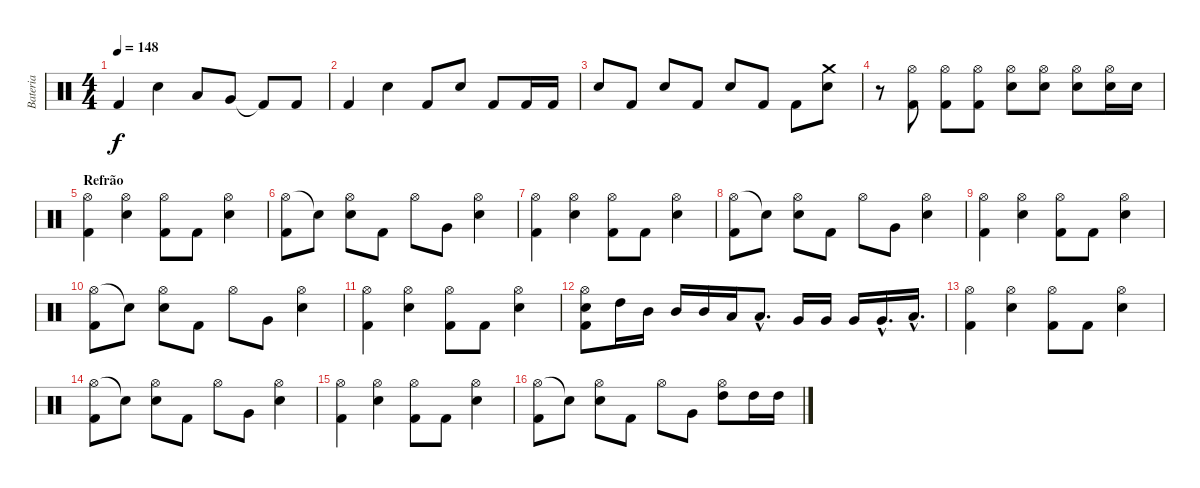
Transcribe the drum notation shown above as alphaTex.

\track ("Bateria" "Bateria") {instrument percussion}
\staff {score}
\articulation defaults
\ts (4 4)
\tempo 148
\clef neutral
\ks c "Kick (hit) 2".4{dy f} "Electric Snare (hit)".4 "Low Tom (hit)".8 "Very Low Tom (hit)".8 "Kick (hit) 2"{t}.8 "Kick (hit) 2".8
|
"Kick (hit) 2".4 "Electric Snare (hit)".4 "Kick (hit) 2".8 "Electric Snare (hit)".8 "Kick (hit) 2".8 "Kick (hit) 2".16 "Kick (hit) 2".16 |
"Electric Snare (hit)".8 "Kick (hit) 2".8 "Electric Snare (hit)".8 "Kick (hit) 2".8 "Electric Snare (hit)".8 "Kick (hit) 2".8 "Kick (hit) 2".8 ("Crash medium (hit)" "Electric Snare (hit)").8 |
r.8 ("Hi-Hat (open)" "Kick (hit) 2").8 ("Hi-Hat (open)" "Kick (hit) 2").8 ("Hi-Hat (open)" "Kick (hit) 2").8 ("Hi-Hat (open)" "Electric Snare (hit)").8 ("Hi-Hat (open)" "Electric Snare (hit)").8 ("Hi-Hat (open)" "Electric Snare (hit)").8 ("Hi-Hat (open)" "Electric Snare (hit)").16 "Electric Snare (hit)".16 |
\section ("" "Refrão")
("Hi-Hat (open)" "Kick (hit) 2").4 ("Hi-Hat (open)" "Electric Snare (hit)").4 ("Hi-Hat (open)" "Kick (hit) 2").8 "Kick (hit) 2".8 ("Hi-Hat (open)" "Electric Snare (hit)").4 |
("Hi-Hat (open)" "Kick (hit) 2").8 "Snare (hit)"{t}.8 ("Hi-Hat (open)" "Electric Snare (hit)").8 "Kick (hit) 2".8 "Hi-Hat (open)".8 "Very Low Tom (hit)".8 ("Hi-Hat (open)" "Electric Snare (hit)").4 |
("Hi-Hat (open)" "Kick (hit) 2").4 ("Hi-Hat (open)" "Electric Snare (hit)").4 ("Hi-Hat (open)" "Kick (hit) 2").8 "Kick (hit) 2".8 ("Hi-Hat (open)" "Electric Snare (hit)").4 |
("Hi-Hat (open)" "Kick (hit) 2").8 "Snare (hit)"{t}.8 ("Hi-Hat (open)" "Electric Snare (hit)").8 "Kick (hit) 2".8 "Hi-Hat (open)".8 "Very Low Tom (hit)".8 ("Hi-Hat (open)" "Electric Snare (hit)").4 |
("Hi-Hat (open)" "Kick (hit) 2").4 ("Hi-Hat (open)" "Electric Snare (hit)").4 ("Hi-Hat (open)" "Kick (hit) 2").8 "Kick (hit) 2".8 ("Hi-Hat (open)" "Electric Snare (hit)").4 |
("Hi-Hat (open)" "Kick (hit) 2").8 "Snare (hit)"{t}.8 ("Hi-Hat (open)" "Electric Snare (hit)").8 "Kick (hit) 2".8 "Hi-Hat (open)".8 "Very Low Tom (hit)".8 ("Hi-Hat (open)" "Electric Snare (hit)").4 |
("Hi-Hat (open)" "Kick (hit) 2").4 ("Hi-Hat (open)" "Electric Snare (hit)").4 ("Hi-Hat (open)" "Kick (hit) 2").8 "Kick (hit) 2".8 ("Hi-Hat (open)" "Electric Snare (hit)").4 |
("Hi-Hat (open)" "Electric Snare (hit)" "Kick (hit) 2").8 "High Tom (hit)".16 "Mid Tom (hit)".16 "Mid Tom (hit)".16 "Mid Tom (hit)".16 "Low Tom (hit)".16 "Low Tom (hit)"{hac}.8{d} "Very Low Tom (hit)".16 "Very Low Tom (hit)".16 "Very Low Tom (hit)".16 "Very Low Tom (hit)"{hac}.16{d} "Low Floor Tom (hit)"{hac}.16{d} |
("Hi-Hat (open)" "Kick (hit) 2").4 ("Hi-Hat (open)" "Electric Snare (hit)").4 ("Hi-Hat (open)" "Kick (hit) 2").8 "Kick (hit) 2".8 ("Hi-Hat (open)" "Electric Snare (hit)").4 |
("Hi-Hat (open)" "Kick (hit) 2").8 "Snare (hit)"{t}.8 ("Hi-Hat (open)" "Electric Snare (hit)").8 "Kick (hit) 2".8 "Hi-Hat (open)".8 "Very Low Tom (hit)".8 ("Hi-Hat (open)" "Electric Snare (hit)").4 |
("Hi-Hat (open)" "Kick (hit) 2").4 ("Hi-Hat (open)" "Electric Snare (hit)").4 ("Hi-Hat (open)" "Kick (hit) 2").8 "Kick (hit) 2".8 ("Hi-Hat (open)" "Electric Snare (hit)").4 |
("Hi-Hat (open)" "Kick (hit) 2").8 "Snare (hit)"{t}.8 ("Hi-Hat (open)" "Electric Snare (hit)").8 "Kick (hit) 2".8 "Hi-Hat (open)".8 "Very Low Tom (hit)".8 ("Hi-Hat (open)" "High Tom (hit)").8 "High Tom (hit)".16 "High Tom (hit)".16
